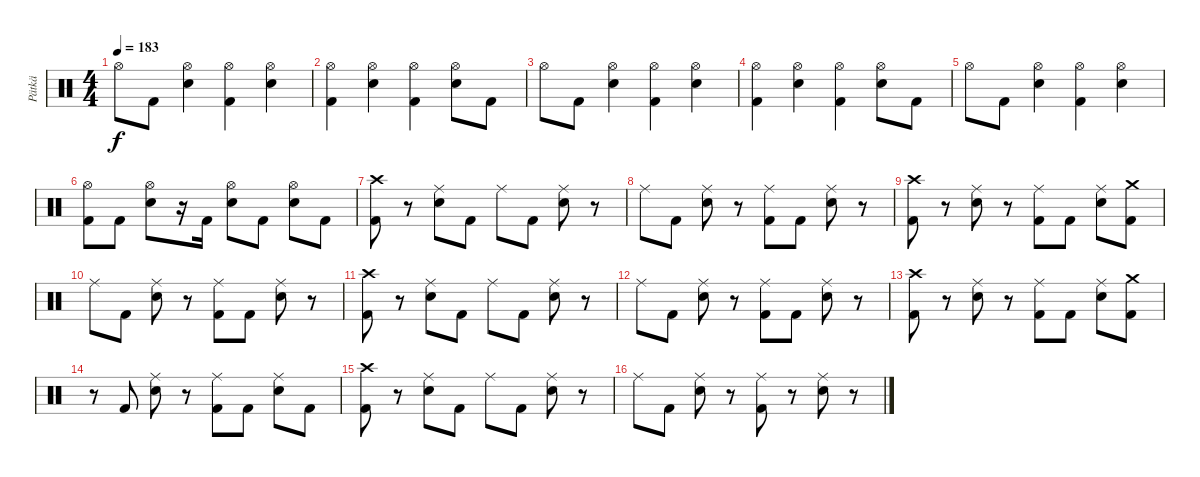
\track ("Pätkä" "Pätkä") {instrument percussion}
\staff {score}
\articulation defaults
\ts (4 4)
\tempo 183
\clef neutral
\ks c "Hi-Hat (open)".8{dy f} "Kick (hit) 2".8
("Hi-Hat (open)" "Electric Snare (hit)").4 ("Hi-Hat (open)" "Kick (hit) 2").4 ("Hi-Hat (open)" "Electric Snare (hit)").4 |
("Hi-Hat (open)" "Kick (hit) 2").4 ("Hi-Hat (open)" "Electric Snare (hit)").4 ("Hi-Hat (open)" "Kick (hit) 2").4 ("Hi-Hat (open)" "Electric Snare (hit)").8 "Kick (hit) 2".8 |
"Hi-Hat (open)".8 "Kick (hit) 2".8 ("Hi-Hat (open)" "Electric Snare (hit)").4 ("Hi-Hat (open)" "Kick (hit) 2").4 ("Hi-Hat (open)" "Electric Snare (hit)").4 |
("Hi-Hat (open)" "Kick (hit) 2").4 ("Hi-Hat (open)" "Electric Snare (hit)").4 ("Hi-Hat (open)" "Kick (hit) 2").4 ("Hi-Hat (open)" "Electric Snare (hit)").8 "Kick (hit) 2".8 |
"Hi-Hat (open)".8 "Kick (hit) 2".8 ("Hi-Hat (open)" "Electric Snare (hit)").4 ("Hi-Hat (open)" "Kick (hit) 2").4 ("Hi-Hat (open)" "Electric Snare (hit)").4 |
("Hi-Hat (open)" "Kick (hit) 2").8 "Kick (hit) 2".8 ("Hi-Hat (open)" "Electric Snare (hit)").8 r.16 "Kick (hit) 2".16 ("Hi-Hat (open)" "Electric Snare (hit)").8 "Kick (hit) 2".8 ("Hi-Hat (open)" "Electric Snare (hit)").8 "Kick (hit) 2".8 |
("Crash high (hit)" "Kick (hit) 2").8 r.8 ("Ride (middle)" "Electric Snare (hit)").8 "Kick (hit) 2".8 "Ride (middle)".8 "Kick (hit) 2".8 ("Ride (middle)" "Electric Snare (hit)").8 r.8 |
"Ride (middle)".8 "Kick (hit) 2".8 ("Ride (middle)" "Electric Snare (hit)").8 r.8 ("Ride (middle)" "Kick (hit) 2").8 "Kick (hit) 2".8 ("Ride (middle)" "Electric Snare (hit)").8 r.8 |
("Crash high (hit)" "Kick (hit) 2").8 r.8 ("Ride (middle)" "Electric Snare (hit)").8 r.8 ("Ride (middle)" "Kick (hit) 2").8 "Kick (hit) 2".8 ("Ride (middle)" "Electric Snare (hit)").8 ("Crash medium (hit)" "Kick (hit) 2").8 |
"Ride (middle)".8 "Kick (hit) 2".8 ("Ride (middle)" "Electric Snare (hit)").8 r.8 ("Ride (middle)" "Kick (hit) 2").8 "Kick (hit) 2".8 ("Ride (middle)" "Electric Snare (hit)").8 r.8 |
("Crash high (hit)" "Kick (hit) 2").8 r.8 ("Ride (middle)" "Electric Snare (hit)").8 "Kick (hit) 2".8 "Ride (middle)".8 "Kick (hit) 2".8 ("Ride (middle)" "Electric Snare (hit)").8 r.8 |
"Ride (middle)".8 "Kick (hit) 2".8 ("Ride (middle)" "Electric Snare (hit)").8 r.8 ("Ride (middle)" "Kick (hit) 2").8 "Kick (hit) 2".8 ("Ride (middle)" "Electric Snare (hit)").8 r.8 |
("Crash high (hit)" "Kick (hit) 2").8 r.8 ("Ride (middle)" "Electric Snare (hit)").8 r.8 ("Ride (middle)" "Kick (hit) 2").8 "Kick (hit) 2".8 ("Ride (middle)" "Electric Snare (hit)").8 ("Crash medium (hit)" "Kick (hit) 2").8 |
r.8 "Kick (hit) 2".8 ("Ride (middle)" "Electric Snare (hit)").8 r.8 ("Ride (middle)" "Kick (hit) 2").8 "Kick (hit) 2".8 ("Ride (middle)" "Electric Snare (hit)").8 "Kick (hit) 2".8 |
("Crash high (hit)" "Kick (hit) 2").8 r.8 ("Ride (middle)" "Electric Snare (hit)").8 "Kick (hit) 2".8 "Ride (middle)".8 "Kick (hit) 2".8 ("Ride (middle)" "Electric Snare (hit)").8 r.8 |
"Ride (middle)".8 "Kick (hit) 2".8 ("Ride (middle)" "Electric Snare (hit)").8 r.8 ("Ride (middle)" "Kick (hit) 2").8 r.8 ("Ride (middle)" "Electric Snare (hit)").8 r.8
